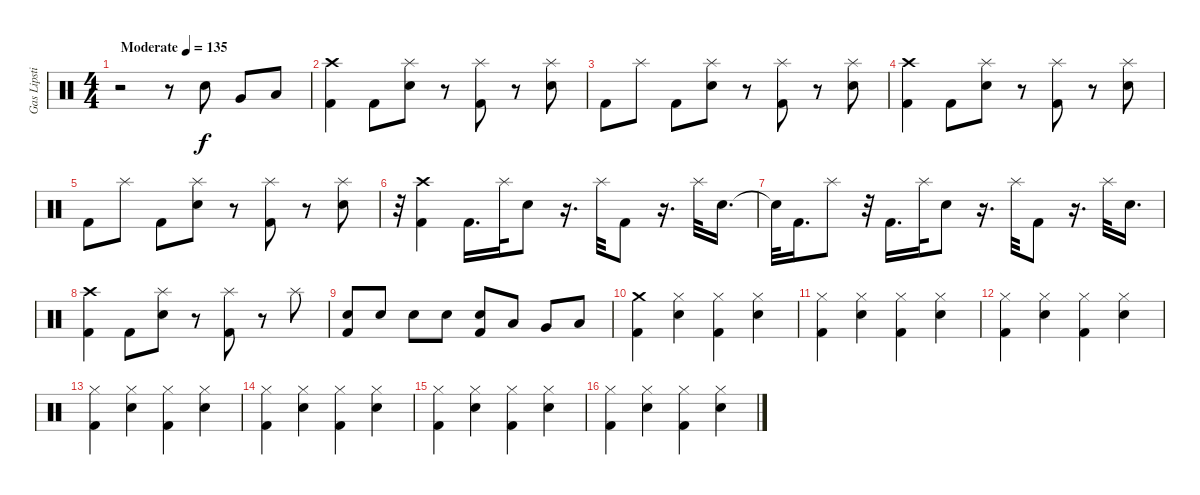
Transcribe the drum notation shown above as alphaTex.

\track ("Gas Lipstick" "Gas Lipsti") {instrument percussion}
\staff {score}
\articulation defaults
\ts (4 4)
\tempo (135 "Moderate")
\clef neutral
\ks c
r.2{dy f} r.8 "Electric Snare (hit)".8 "Very Low Tom (hit)".8 "Low Floor Tom (hit)".8 |
("Crash high (hit)" "Kick (hit) 2").4 "Kick (hit) 2".8 ("Splash (hit)" "Electric Snare (hit)").8 r.8 ("Splash (hit)" "Kick (hit) 2").8 r.8 ("Splash (hit)" "Electric Snare (hit)").8 |
"Kick (hit) 2".8 "Splash (hit)".8 "Kick (hit) 2".8 ("Splash (hit)" "Electric Snare (hit)").8 r.8 ("Splash (hit)" "Kick (hit) 2").8 r.8 ("Splash (hit)" "Electric Snare (hit)").8 |
("Crash high (hit)" "Kick (hit) 2").4 "Kick (hit) 2".8 ("Splash (hit)" "Electric Snare (hit)").8 r.8 ("Splash (hit)" "Kick (hit) 2").8 r.8 ("Splash (hit)" "Electric Snare (hit)").8 |
"Kick (hit) 2".8 "Splash (hit)".8 "Kick (hit) 2".8 ("Splash (hit)" "Electric Snare (hit)").8 r.8 ("Splash (hit)" "Kick (hit) 2").8 r.8 ("Splash (hit)" "Electric Snare (hit)").8 |
r.32 ("Crash high (hit)" "Kick (hit) 2").4 "Kick (hit) 2".16{d} "Splash (hit)".32 "Electric Snare (hit)".8 r.16{d} "Splash (hit)".32 "Kick (hit) 2".8 r.16{d} "Splash (hit)".32 "Electric Snare (hit)".16{d} |
"Snare (hit)"{t}.32 "Kick (hit) 2".16{d} "Splash (hit)".8 r.32 "Kick (hit) 2".16{d} "Splash (hit)".32 "Electric Snare (hit)".8 r.16{d} "Splash (hit)".32 "Kick (hit) 2".8 r.16{d} "Splash (hit)".32 "Electric Snare (hit)".16{d} |
("Crash high (hit)" "Kick (hit) 2").4 "Kick (hit) 2".8 ("Splash (hit)" "Electric Snare (hit)").8 r.8 ("Splash (hit)" "Kick (hit) 2").8 r.8 "Splash (hit)".8 |
("Electric Snare (hit)" "Kick (hit) 2").8 "Electric Snare (hit)".8 "Electric Snare (hit)".8 "Electric Snare (hit)".8 ("Electric Snare (hit)" "Kick (hit) 2").8 "Low Tom (hit)".8 "Very Low Tom (hit)".8 "Low Floor Tom (hit)".8 |
("Kick (hit) 2" "Crash medium (hit)").4 ("Hi-Hat (closed)" "Electric Snare (hit)").4 ("Hi-Hat (closed)" "Kick (hit) 2").4 ("Hi-Hat (closed)" "Electric Snare (hit)").4 |
("Hi-Hat (closed)" "Kick (hit) 2").4 ("Hi-Hat (closed)" "Electric Snare (hit)").4 ("Kick (hit) 2" "Hi-Hat (closed)").4 ("Electric Snare (hit)" "Hi-Hat (closed)").4 |
("Hi-Hat (closed)" "Kick (hit) 2").4 ("Hi-Hat (closed)" "Electric Snare (hit)").4 ("Hi-Hat (closed)" "Kick (hit) 2").4 ("Hi-Hat (closed)" "Electric Snare (hit)").4 |
("Hi-Hat (closed)" "Kick (hit) 2").4 ("Hi-Hat (closed)" "Electric Snare (hit)").4 ("Kick (hit) 2" "Hi-Hat (closed)").4 ("Electric Snare (hit)" "Hi-Hat (closed)").4 |
("Hi-Hat (closed)" "Kick (hit) 2").4 ("Hi-Hat (closed)" "Electric Snare (hit)").4 ("Hi-Hat (closed)" "Kick (hit) 2").4 ("Hi-Hat (closed)" "Electric Snare (hit)").4 |
("Hi-Hat (closed)" "Kick (hit) 2").4 ("Hi-Hat (closed)" "Electric Snare (hit)").4 ("Kick (hit) 2" "Hi-Hat (closed)").4 ("Electric Snare (hit)" "Hi-Hat (closed)").4 |
("Hi-Hat (closed)" "Kick (hit) 2").4 ("Hi-Hat (closed)" "Electric Snare (hit)").4 ("Hi-Hat (closed)" "Kick (hit) 2").4 ("Hi-Hat (closed)" "Electric Snare (hit)").4
